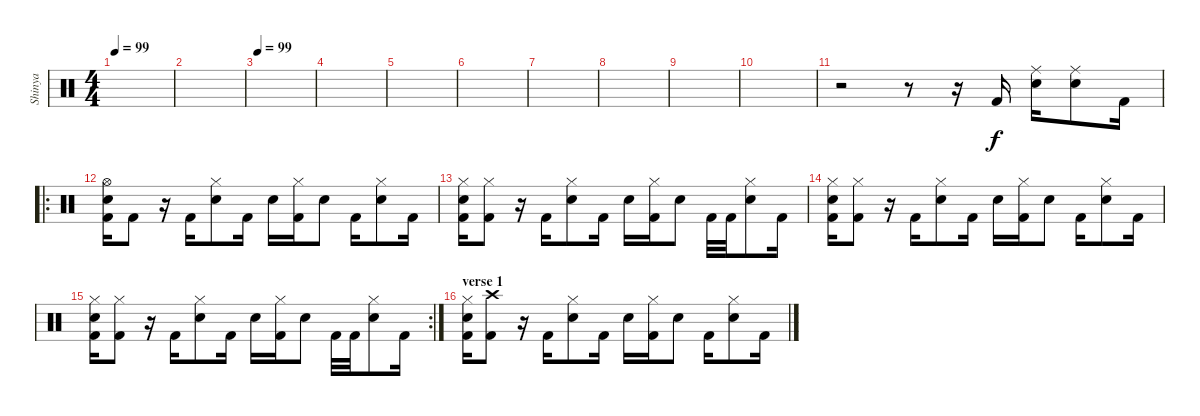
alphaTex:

\track ("Shinya" "Shinya") {instrument percussion}
\staff {score}
\articulation defaults
\ts (4 4)
\tempo 99
\tempo 80
\tempo 99
\clef neutral
\ks c
|
|
\tempo 99
|
|
|
|
|
|
|
|
r.2 r.8 r.16 "Kick (hit) 2".16 ("Ride (middle)" "Snare (hit) 2").16 ("Ride (middle)" "Snare (hit) 2").8 "Kick (hit) 2".16 |
\ro
("Hi-Hat (open)" "Snare (hit) 2" "Kick (hit) 2").16 "Kick (hit) 2".8 r.16 "Kick (hit) 2".16 ("Hi-Hat (closed)" "Snare (hit) 2").8 "Kick (hit) 2".16 "Snare (hit) 2".16 ("Hi-Hat (closed)" "Kick (hit) 2").16 "Snare (hit) 2".8 "Kick (hit) 2".16 ("Hi-Hat (closed)" "Snare (hit) 2").8 "Kick (hit) 2".16 |
("Hi-Hat (closed)" "Snare (hit) 2" "Kick (hit) 2").16 ("Hi-Hat (closed)" "Kick (hit) 2").8 r.16 "Kick (hit) 2".16 ("Hi-Hat (closed)" "Snare (hit) 2").8 "Kick (hit) 2".16 "Snare (hit) 2".16 ("Hi-Hat (closed)" "Kick (hit) 2").16 "Snare (hit) 2".8 "Kick (hit) 2".32 "Kick (hit) 2".32 ("Hi-Hat (closed)" "Snare (hit) 2").8 "Kick (hit) 2".16 |
("Hi-Hat (closed)" "Snare (hit) 2" "Kick (hit) 2").16 ("Hi-Hat (closed)" "Kick (hit) 2").8 r.16 "Kick (hit) 2".16 ("Hi-Hat (closed)" "Snare (hit) 2").8 "Kick (hit) 2".16 "Snare (hit) 2".16 ("Hi-Hat (closed)" "Kick (hit) 2").16 "Snare (hit) 2".8 "Kick (hit) 2".16 ("Hi-Hat (closed)" "Snare (hit) 2").8 "Kick (hit) 2".16 |
\rc 2
("Hi-Hat (closed)" "Snare (hit) 2" "Kick (hit) 2").16 ("Hi-Hat (closed)" "Kick (hit) 2").8 r.16 "Kick (hit) 2".16 ("Hi-Hat (closed)" "Snare (hit) 2").8 "Kick (hit) 2".16 "Snare (hit) 2".16 ("Hi-Hat (closed)" "Kick (hit) 2").16 "Snare (hit) 2".8 "Kick (hit) 2".32 "Kick (hit) 2".32 ("Hi-Hat (closed)" "Snare (hit) 2").8 "Kick (hit) 2".16 |
\section ("" "verse 1")
("Hi-Hat (closed)" "Snare (hit) 2" "Kick (hit) 2").16 ("Crash high (hit)" "Kick (hit) 2").8 r.16 "Kick (hit) 2".16 ("Hi-Hat (closed)" "Snare (hit) 2").8 "Kick (hit) 2".16 "Snare (hit) 2".16 ("Hi-Hat (closed)" "Kick (hit) 2").16 "Snare (hit) 2".8 "Kick (hit) 2".16 ("Hi-Hat (closed)" "Snare (hit) 2").8 "Kick (hit) 2".16
